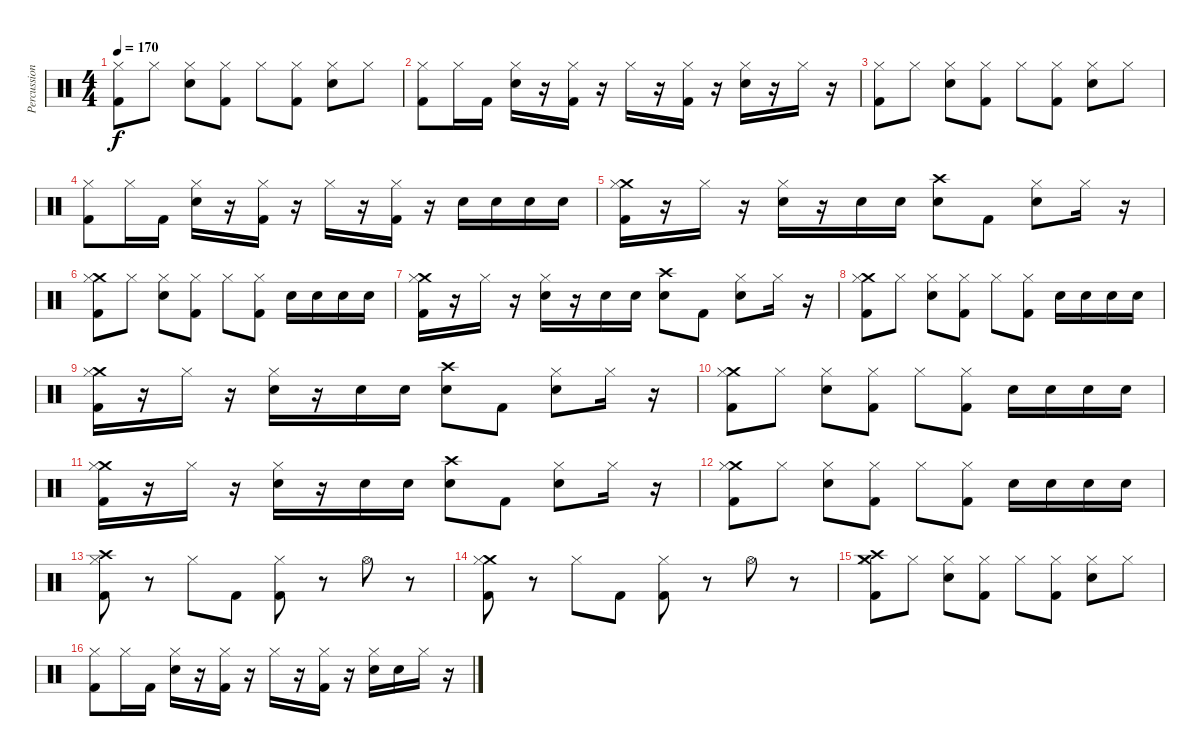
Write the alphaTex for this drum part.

\track ("Percussions" "Percussion") {instrument percussion}
\staff {score}
\articulation defaults
\ts (4 4)
\tempo 170
\clef neutral
\ks c
("Hi-Hat (closed)" "Kick (hit) 2").8{dy f} "Hi-Hat (closed)".8 ("Hi-Hat (closed)" "Electric Snare (hit)").8 ("Hi-Hat (closed)" "Kick (hit) 2").8 "Hi-Hat (closed)".8 ("Hi-Hat (closed)" "Kick (hit) 2").8 ("Hi-Hat (closed)" "Electric Snare (hit)").8 "Hi-Hat (closed)".8 |
("Hi-Hat (closed)" "Kick (hit) 2").8 "Hi-Hat (closed)".16 "Kick (hit) 2".16 ("Hi-Hat (closed)" "Electric Snare (hit)").16 r.16 ("Hi-Hat (closed)" "Kick (hit) 2").16 r.16 "Hi-Hat (closed)".16 r.16 ("Hi-Hat (closed)" "Kick (hit) 2").16 r.16 ("Hi-Hat (closed)" "Electric Snare (hit)").16 r.16 "Hi-Hat (closed)".16 r.16 |
("Hi-Hat (closed)" "Kick (hit) 2").8 "Hi-Hat (closed)".8 ("Hi-Hat (closed)" "Electric Snare (hit)").8 ("Hi-Hat (closed)" "Kick (hit) 2").8 "Hi-Hat (closed)".8 ("Hi-Hat (closed)" "Kick (hit) 2").8 ("Hi-Hat (closed)" "Electric Snare (hit)").8 "Hi-Hat (closed)".8 |
("Hi-Hat (closed)" "Kick (hit) 2").8 "Hi-Hat (closed)".16 "Kick (hit) 2".16 ("Hi-Hat (closed)" "Electric Snare (hit)").16 r.16 ("Hi-Hat (closed)" "Kick (hit) 2").16 r.16 "Hi-Hat (closed)".16 r.16 ("Hi-Hat (closed)" "Kick (hit) 2").16 r.16 "Electric Snare (hit)".16 "Electric Snare (hit)".16 "Electric Snare (hit)".16 "Electric Snare (hit)".16 |
("Crash medium (hit)" "Hi-Hat (closed)" "Kick (hit) 2").16 r.16 "Hi-Hat (closed)".16 r.16 ("Hi-Hat (closed)" "Electric Snare (hit)").16 r.16 "Electric Snare (hit)".16 "Electric Snare (hit)".16 ("Crash high (hit)" "Electric Snare (hit)").8 "Kick (hit) 2".8 ("Hi-Hat (closed)" "Electric Snare (hit)").8 "Hi-Hat (closed)".16 r.16 |
("Crash medium (hit)" "Hi-Hat (closed)" "Kick (hit) 2").8 "Hi-Hat (closed)".8 ("Hi-Hat (closed)" "Electric Snare (hit)").8 ("Hi-Hat (closed)" "Kick (hit) 2").8 "Hi-Hat (closed)".8 ("Hi-Hat (closed)" "Kick (hit) 2").8 "Electric Snare (hit)".16 "Electric Snare (hit)".16 "Electric Snare (hit)".16 "Electric Snare (hit)".16 |
("Crash medium (hit)" "Hi-Hat (closed)" "Kick (hit) 2").16 r.16 "Hi-Hat (closed)".16 r.16 ("Hi-Hat (closed)" "Electric Snare (hit)").16 r.16 "Electric Snare (hit)".16 "Electric Snare (hit)".16 ("Crash high (hit)" "Electric Snare (hit)").8 "Kick (hit) 2".8 ("Hi-Hat (closed)" "Electric Snare (hit)").8 "Hi-Hat (closed)".16 r.16 |
("Crash medium (hit)" "Hi-Hat (closed)" "Kick (hit) 2").8 "Hi-Hat (closed)".8 ("Hi-Hat (closed)" "Electric Snare (hit)").8 ("Hi-Hat (closed)" "Kick (hit) 2").8 "Hi-Hat (closed)".8 ("Hi-Hat (closed)" "Kick (hit) 2").8 "Electric Snare (hit)".16 "Electric Snare (hit)".16 "Electric Snare (hit)".16 "Electric Snare (hit)".16 |
("Crash medium (hit)" "Hi-Hat (closed)" "Kick (hit) 2").16 r.16 "Hi-Hat (closed)".16 r.16 ("Hi-Hat (closed)" "Electric Snare (hit)").16 r.16 "Electric Snare (hit)".16 "Electric Snare (hit)".16 ("Crash high (hit)" "Electric Snare (hit)").8 "Kick (hit) 2".8 ("Hi-Hat (closed)" "Electric Snare (hit)").8 "Hi-Hat (closed)".16 r.16 |
("Crash medium (hit)" "Hi-Hat (closed)" "Kick (hit) 2").8 "Hi-Hat (closed)".8 ("Hi-Hat (closed)" "Electric Snare (hit)").8 ("Hi-Hat (closed)" "Kick (hit) 2").8 "Hi-Hat (closed)".8 ("Hi-Hat (closed)" "Kick (hit) 2").8 "Electric Snare (hit)".16 "Electric Snare (hit)".16 "Electric Snare (hit)".16 "Electric Snare (hit)".16 |
("Crash medium (hit)" "Hi-Hat (closed)" "Kick (hit) 2").16 r.16 "Hi-Hat (closed)".16 r.16 ("Hi-Hat (closed)" "Electric Snare (hit)").16 r.16 "Electric Snare (hit)".16 "Electric Snare (hit)".16 ("Crash high (hit)" "Electric Snare (hit)").8 "Kick (hit) 2".8 ("Hi-Hat (closed)" "Electric Snare (hit)").8 "Hi-Hat (closed)".16 r.16 |
("Crash medium (hit)" "Hi-Hat (closed)" "Kick (hit) 2").8 "Hi-Hat (closed)".8 ("Hi-Hat (closed)" "Electric Snare (hit)").8 ("Hi-Hat (closed)" "Kick (hit) 2").8 "Hi-Hat (closed)".8 ("Hi-Hat (closed)" "Kick (hit) 2").8 "Electric Snare (hit)".16 "Electric Snare (hit)".16 "Electric Snare (hit)".16 "Electric Snare (hit)".16 |
("Crash high (hit)" "Hi-Hat (closed)" "Kick (hit) 2").8 r.8 "Hi-Hat (closed)".8 "Kick (hit) 2".8 ("Hi-Hat (closed)" "Kick (hit) 2").8 r.8 "Hi-Hat (open)".8 r.8 |
("Crash medium (hit)" "Hi-Hat (closed)" "Kick (hit) 2").8 r.8 "Hi-Hat (closed)".8 "Kick (hit) 2".8 ("Hi-Hat (closed)" "Kick (hit) 2").8 r.8 "Hi-Hat (open)".8 r.8 |
("Crash medium (hit)" "Crash high (hit)" "Hi-Hat (closed)" "Kick (hit) 2").8 "Hi-Hat (closed)".8 ("Hi-Hat (closed)" "Electric Snare (hit)").8 ("Hi-Hat (closed)" "Kick (hit) 2").8 "Hi-Hat (closed)".8 ("Hi-Hat (closed)" "Kick (hit) 2").8 ("Hi-Hat (closed)" "Electric Snare (hit)").8 "Hi-Hat (closed)".8 |
("Hi-Hat (closed)" "Kick (hit) 2").8 "Hi-Hat (closed)".16 "Kick (hit) 2".16 ("Hi-Hat (closed)" "Electric Snare (hit)").16 r.16 ("Hi-Hat (closed)" "Kick (hit) 2").16 r.16 "Hi-Hat (closed)".16 r.16 ("Hi-Hat (closed)" "Kick (hit) 2").16 r.16 ("Hi-Hat (closed)" "Electric Snare (hit)").16 "Electric Snare (hit)".16 "Hi-Hat (closed)".16 r.16
